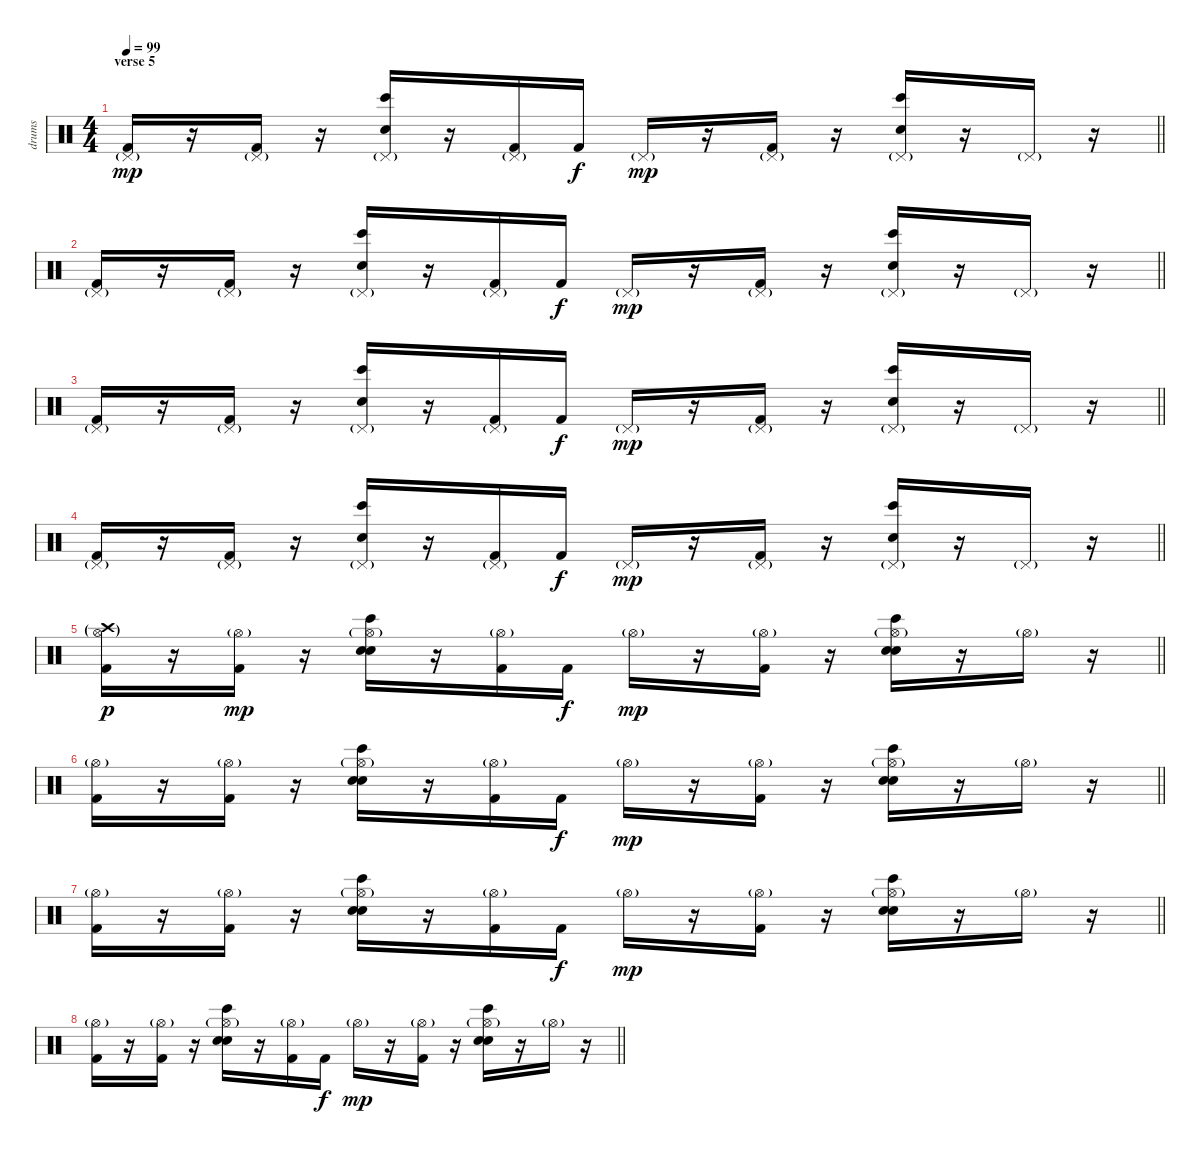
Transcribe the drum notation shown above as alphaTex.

\track ("drums" "drums") {instrument percussion}
\staff {score}
\articulation defaults
\ts (4 4)
\section ("" "verse 5")
\tempo 99
\clef neutral
\barLineRight lightlight
\ks c
("Kick (hit) 2" "Pedal Hi-Hat (hit)"{g}).16{dy mp} r.16 ("Kick (hit) 2" "Pedal Hi-Hat (hit)"{g}).16 r.16 ("Bongo High (hit)" "Hand Clap (hit)" "Pedal Hi-Hat (hit)"{g}).16 r.16 ("Kick (hit) 2" "Pedal Hi-Hat (hit)"{g}).16 "Kick (hit) 2".16{dy f} "Pedal Hi-Hat (hit)"{g}.16{dy mp} r.16 ("Kick (hit) 2" "Pedal Hi-Hat (hit)"{g}).16 r.16 ("Bongo High (hit)" "Hand Clap (hit)" "Pedal Hi-Hat (hit)"{g}).16 r.16 "Pedal Hi-Hat (hit)"{g}.16 r.16 |
\barLineRight lightlight
("Kick (hit) 2" "Pedal Hi-Hat (hit)"{g}).16 r.16 ("Kick (hit) 2" "Pedal Hi-Hat (hit)"{g}).16 r.16 ("Bongo High (hit)" "Hand Clap (hit)" "Pedal Hi-Hat (hit)"{g}).16 r.16 ("Kick (hit) 2" "Pedal Hi-Hat (hit)"{g}).16 "Kick (hit) 2".16{dy f} "Pedal Hi-Hat (hit)"{g}.16{dy mp} r.16 ("Kick (hit) 2" "Pedal Hi-Hat (hit)"{g}).16 r.16 ("Bongo High (hit)" "Hand Clap (hit)" "Pedal Hi-Hat (hit)"{g}).16 r.16 "Pedal Hi-Hat (hit)"{g}.16 r.16 |
\barLineRight lightlight
("Kick (hit) 2" "Pedal Hi-Hat (hit)"{g}).16 r.16 ("Kick (hit) 2" "Pedal Hi-Hat (hit)"{g}).16 r.16 ("Bongo High (hit)" "Hand Clap (hit)" "Pedal Hi-Hat (hit)"{g}).16 r.16 ("Kick (hit) 2" "Pedal Hi-Hat (hit)"{g}).16 "Kick (hit) 2".16{dy f} "Pedal Hi-Hat (hit)"{g}.16{dy mp} r.16 ("Kick (hit) 2" "Pedal Hi-Hat (hit)"{g}).16 r.16 ("Bongo High (hit)" "Hand Clap (hit)" "Pedal Hi-Hat (hit)"{g}).16 r.16 "Pedal Hi-Hat (hit)"{g}.16 r.16 |
\barLineRight lightlight
("Kick (hit) 2" "Pedal Hi-Hat (hit)"{g}).16 r.16 ("Kick (hit) 2" "Pedal Hi-Hat (hit)"{g}).16 r.16 ("Bongo High (hit)" "Hand Clap (hit)" "Pedal Hi-Hat (hit)"{g}).16 r.16 ("Kick (hit) 2" "Pedal Hi-Hat (hit)"{g}).16 "Kick (hit) 2".16{dy f} "Pedal Hi-Hat (hit)"{g}.16{dy mp} r.16 ("Kick (hit) 2" "Pedal Hi-Hat (hit)"{g}).16 r.16 ("Bongo High (hit)" "Hand Clap (hit)" "Pedal Hi-Hat (hit)"{g}).16 r.16 "Pedal Hi-Hat (hit)"{g}.16 r.16 |
\barLineRight lightlight
("Kick (hit) 2" "Hi-Hat (open)"{g} "Crash high (hit)"{g}).16{dy p} r.16 ("Kick (hit) 2" "Hi-Hat (open)"{g}).16{dy mp} r.16 ("Bongo High (hit)" "Hand Clap (hit)" "Electric Snare (hit)" "Hi-Hat (open)"{g}).16 r.16 ("Kick (hit) 2" "Hi-Hat (open)"{g}).16 "Kick (hit) 2".16{dy f} "Hi-Hat (open)"{g}.16{dy mp} r.16 ("Kick (hit) 2" "Hi-Hat (open)"{g}).16 r.16 ("Bongo High (hit)" "Hand Clap (hit)" "Electric Snare (hit)" "Hi-Hat (open)"{g}).16 r.16 "Hi-Hat (open)"{g}.16 r.16 |
\barLineRight lightlight
("Kick (hit) 2" "Hi-Hat (open)"{g}).16 r.16 ("Kick (hit) 2" "Hi-Hat (open)"{g}).16 r.16 ("Bongo High (hit)" "Hand Clap (hit)" "Electric Snare (hit)" "Hi-Hat (open)"{g}).16 r.16 ("Kick (hit) 2" "Hi-Hat (open)"{g}).16 "Kick (hit) 2".16{dy f} "Hi-Hat (open)"{g}.16{dy mp} r.16 ("Kick (hit) 2" "Hi-Hat (open)"{g}).16 r.16 ("Bongo High (hit)" "Hand Clap (hit)" "Electric Snare (hit)" "Hi-Hat (open)"{g}).16 r.16 "Hi-Hat (open)"{g}.16 r.16 |
\barLineRight lightlight
("Kick (hit) 2" "Hi-Hat (open)"{g}).16 r.16 ("Kick (hit) 2" "Hi-Hat (open)"{g}).16 r.16 ("Bongo High (hit)" "Hand Clap (hit)" "Electric Snare (hit)" "Hi-Hat (open)"{g}).16 r.16 ("Kick (hit) 2" "Hi-Hat (open)"{g}).16 "Kick (hit) 2".16{dy f} "Hi-Hat (open)"{g}.16{dy mp} r.16 ("Kick (hit) 2" "Hi-Hat (open)"{g}).16 r.16 ("Bongo High (hit)" "Hand Clap (hit)" "Electric Snare (hit)" "Hi-Hat (open)"{g}).16 r.16 "Hi-Hat (open)"{g}.16 r.16 |
\barLineRight lightlight
("Kick (hit) 2" "Hi-Hat (open)"{g}).16 r.16 ("Kick (hit) 2" "Hi-Hat (open)"{g}).16 r.16 ("Bongo High (hit)" "Hand Clap (hit)" "Electric Snare (hit)" "Hi-Hat (open)"{g}).16 r.16 ("Kick (hit) 2" "Hi-Hat (open)"{g}).16 "Kick (hit) 2".16{dy f} "Hi-Hat (open)"{g}.16{dy mp} r.16 ("Kick (hit) 2" "Hi-Hat (open)"{g}).16 r.16 ("Bongo High (hit)" "Hand Clap (hit)" "Electric Snare (hit)" "Hi-Hat (open)"{g}).16 r.16 "Hi-Hat (open)"{g}.16 r.16
